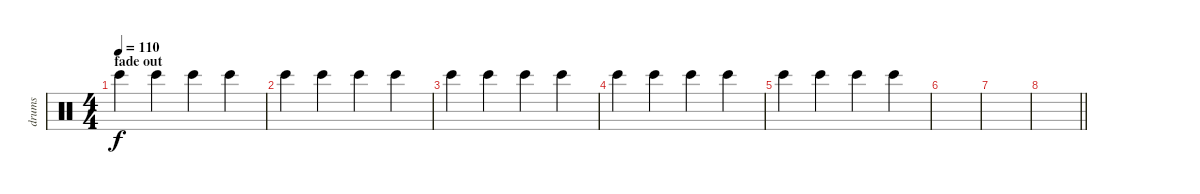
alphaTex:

\track ("drums" "drums") {instrument percussion}
\staff {score}
\articulation defaults
\ts (4 4)
\section ("" "fade out")
\tempo 110
\clef neutral
\ks c "Bongo High (hit)".4{dy f volume 4} "Bongo High (hit)".4 "Bongo High (hit)".4 "Bongo High (hit)".4
|
"Bongo High (hit)".4 "Bongo High (hit)".4 "Bongo High (hit)".4 "Bongo High (hit)".4 |
"Bongo High (hit)".4 "Bongo High (hit)".4 "Bongo High (hit)".4 "Bongo High (hit)".4 |
"Bongo High (hit)".4 "Bongo High (hit)".4 "Bongo High (hit)".4 "Bongo High (hit)".4 |
"Bongo High (hit)".4{volume 0} "Bongo High (hit)".4 "Bongo High (hit)".4 "Bongo High (hit)".4 |
|
|
\barLineRight lightlight
